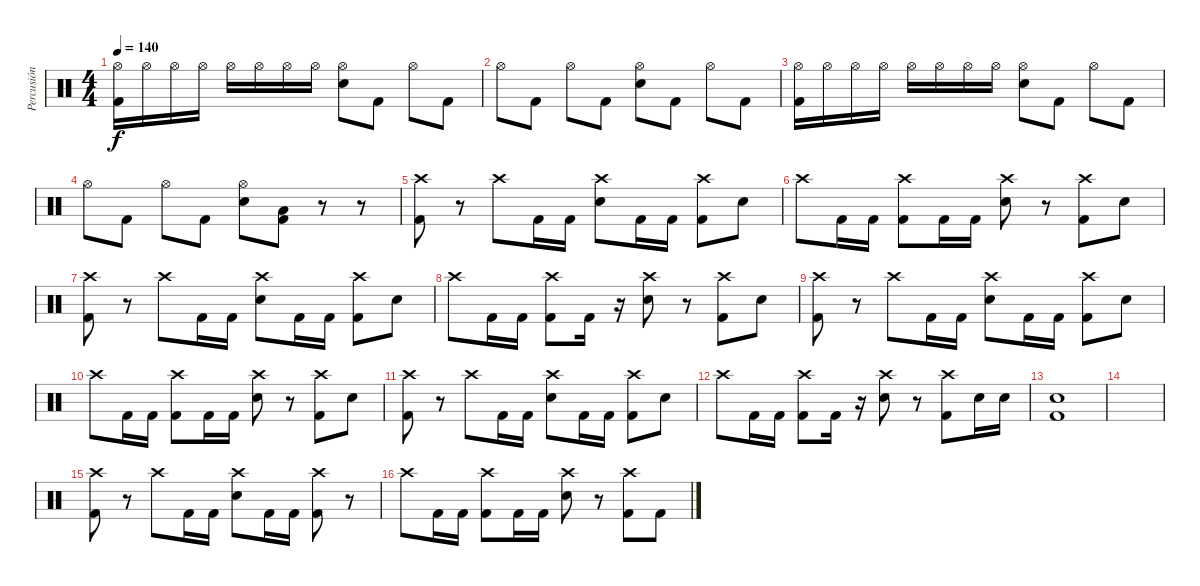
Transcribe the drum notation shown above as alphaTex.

\track ("Percusión" "Percusión") {instrument percussion}
\staff {score}
\articulation defaults
\ts (4 4)
\tempo 140
\clef neutral
\ks c
("Hi-Hat (open)" "Kick (hit) 2").16{dy f} "Hi-Hat (open)".16 "Hi-Hat (open)".16 "Hi-Hat (open)".16 "Hi-Hat (open)".16 "Hi-Hat (open)".16 "Hi-Hat (open)".16 "Hi-Hat (open)".16 ("Hi-Hat (open)" "Electric Snare (hit)").8 "Kick (hit) 2".8 "Hi-Hat (open)".8 "Kick (hit) 2".8 |
"Hi-Hat (open)".8 "Kick (hit) 2".8 "Hi-Hat (open)".8 "Kick (hit) 2".8 ("Hi-Hat (open)" "Electric Snare (hit)").8 "Kick (hit) 2".8 "Hi-Hat (open)".8 "Kick (hit) 2".8 |
("Hi-Hat (open)" "Kick (hit) 2").16 "Hi-Hat (open)".16 "Hi-Hat (open)".16 "Hi-Hat (open)".16 "Hi-Hat (open)".16 "Hi-Hat (open)".16 "Hi-Hat (open)".16 "Hi-Hat (open)".16 ("Hi-Hat (open)" "Electric Snare (hit)").8 "Kick (hit) 2".8 "Hi-Hat (open)".8 "Kick (hit) 2".8 |
"Hi-Hat (open)".8 "Kick (hit) 2".8 "Hi-Hat (open)".8 "Kick (hit) 2".8 ("Hi-Hat (open)" "Electric Snare (hit)").8 ("Low Tom (hit)" "Kick (hit) 2").8 r.8 r.8 |
("Crash high (hit)" "Kick (hit) 2").8 r.8 "Crash high (hit)".8 "Kick (hit) 2".16 "Kick (hit) 2".16 ("Crash high (hit)" "Electric Snare (hit)").8 "Kick (hit) 2".16 "Kick (hit) 2".16 ("Crash high (hit)" "Kick (hit) 2").8 "Electric Snare (hit)".8 |
"Crash high (hit)".8 "Kick (hit) 2".16 "Kick (hit) 2".16 ("Crash high (hit)" "Kick (hit) 2").8 "Kick (hit) 2".16 "Kick (hit) 2".16 ("Crash high (hit)" "Electric Snare (hit)").8 r.8 ("Crash high (hit)" "Kick (hit) 2").8 "Electric Snare (hit)".8 |
("Crash high (hit)" "Kick (hit) 2").8 r.8 "Crash high (hit)".8 "Kick (hit) 2".16 "Kick (hit) 2".16 ("Crash high (hit)" "Electric Snare (hit)").8 "Kick (hit) 2".16 "Kick (hit) 2".16 ("Crash high (hit)" "Kick (hit) 2").8 "Electric Snare (hit)".8 |
"Crash high (hit)".8 "Kick (hit) 2".16 "Kick (hit) 2".16 ("Crash high (hit)" "Kick (hit) 2").8 "Kick (hit) 2".16 r.16 ("Crash high (hit)" "Electric Snare (hit)").8 r.8 ("Crash high (hit)" "Kick (hit) 2").8 "Electric Snare (hit)".8 |
("Crash high (hit)" "Kick (hit) 2").8 r.8 "Crash high (hit)".8 "Kick (hit) 2".16 "Kick (hit) 2".16 ("Crash high (hit)" "Electric Snare (hit)").8 "Kick (hit) 2".16 "Kick (hit) 2".16 ("Crash high (hit)" "Kick (hit) 2").8 "Electric Snare (hit)".8 |
"Crash high (hit)".8 "Kick (hit) 2".16 "Kick (hit) 2".16 ("Crash high (hit)" "Kick (hit) 2").8 "Kick (hit) 2".16 "Kick (hit) 2".16 ("Crash high (hit)" "Electric Snare (hit)").8 r.8 ("Crash high (hit)" "Kick (hit) 2").8 "Electric Snare (hit)".8 |
("Crash high (hit)" "Kick (hit) 2").8 r.8 "Crash high (hit)".8 "Kick (hit) 2".16 "Kick (hit) 2".16 ("Crash high (hit)" "Electric Snare (hit)").8 "Kick (hit) 2".16 "Kick (hit) 2".16 ("Crash high (hit)" "Kick (hit) 2").8 "Electric Snare (hit)".8 |
"Crash high (hit)".8 "Kick (hit) 2".16 "Kick (hit) 2".16 ("Crash high (hit)" "Kick (hit) 2").8 "Kick (hit) 2".16 r.16 ("Crash high (hit)" "Electric Snare (hit)").8 r.8 ("Crash high (hit)" "Kick (hit) 2").8 "Electric Snare (hit)".16 "Electric Snare (hit)".16 |
("Electric Snare (hit)" "Kick (hit) 2").1 |
|
("Crash high (hit)" "Kick (hit) 2").8 r.8 "Crash high (hit)".8 "Kick (hit) 2".16 "Kick (hit) 2".16 ("Crash high (hit)" "Electric Snare (hit)").8 "Kick (hit) 2".16 "Kick (hit) 2".16 ("Crash high (hit)" "Kick (hit) 2").8 r.8 |
"Crash high (hit)".8 "Kick (hit) 2".16 "Kick (hit) 2".16 ("Crash high (hit)" "Kick (hit) 2").8 "Kick (hit) 2".16 "Kick (hit) 2".16 ("Crash high (hit)" "Electric Snare (hit)").8 r.8 ("Crash high (hit)" "Kick (hit) 2").8 "Kick (hit) 2".8
